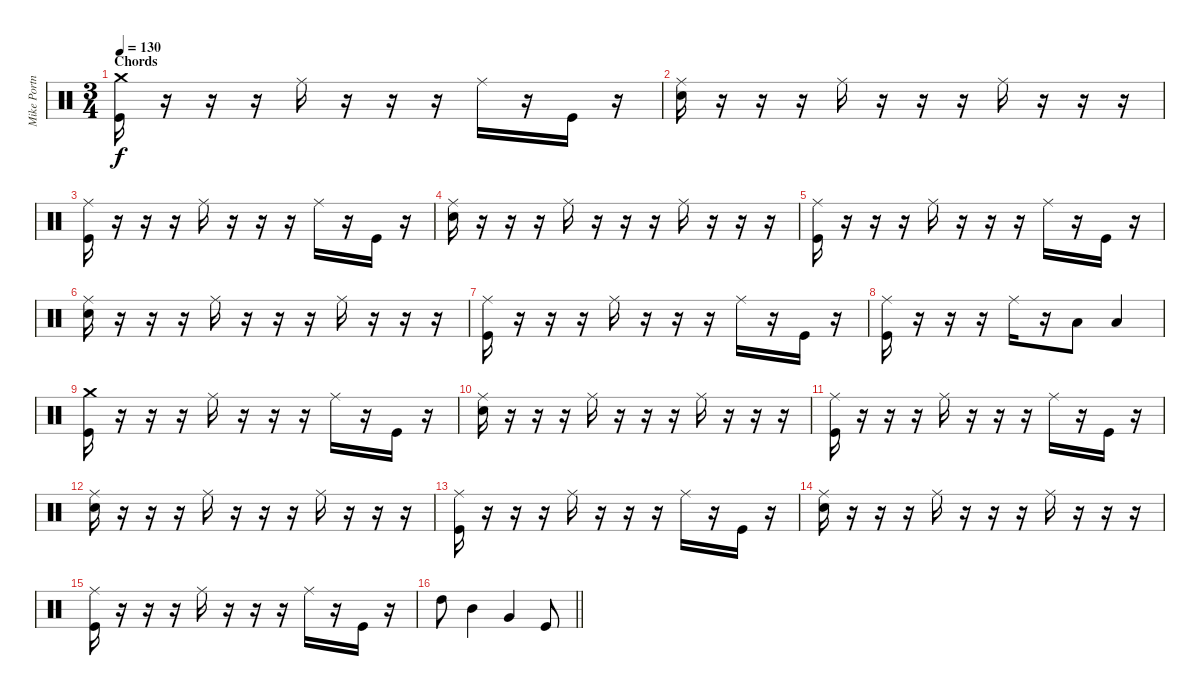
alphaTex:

\track ("Mike Portnoy" "Mike Portn") {instrument percussion}
\staff {score}
\articulation defaults
\ts (3 4)
\section ("" "Chords")
\tempo 130
\clef neutral
\ks c
("Kick (hit)" "Crash medium (hit)").16{dy f} r.16 r.16 r.16 "Ride (middle)".16 r.16 r.16 r.16 "Ride (middle)".16 r.16 "Kick (hit)".16 r.16 |
("Electric Snare (hit)" "Ride (middle)").16 r.16 r.16 r.16 "Ride (middle)".16 r.16 r.16 r.16 "Ride (middle)".16 r.16 r.16 r.16 |
("Kick (hit)" "Ride (middle)").16 r.16 r.16 r.16 "Ride (middle)".16 r.16 r.16 r.16 "Ride (middle)".16 r.16 "Kick (hit)".16 r.16 |
("Electric Snare (hit)" "Ride (middle)").16 r.16 r.16 r.16 "Ride (middle)".16 r.16 r.16 r.16 "Ride (middle)".16 r.16 r.16 r.16 |
("Kick (hit)" "Ride (middle)").16 r.16 r.16 r.16 "Ride (middle)".16 r.16 r.16 r.16 "Ride (middle)".16 r.16 "Kick (hit)".16 r.16 |
("Electric Snare (hit)" "Ride (middle)").16 r.16 r.16 r.16 "Ride (middle)".16 r.16 r.16 r.16 "Ride (middle)".16 r.16 r.16 r.16 |
("Kick (hit)" "Ride (middle)").16 r.16 r.16 r.16 "Ride (middle)".16 r.16 r.16 r.16 "Ride (middle)".16 r.16 "Kick (hit)".16 r.16 |
("Kick (hit)" "Ride (middle)").16 r.16 r.16 r.16 "Ride (middle)".16 r.16 "Low Floor Tom (hit)".8 "Low Floor Tom (hit)".4 |
("Kick (hit)" "Crash medium (hit)").16 r.16 r.16 r.16 "Ride (middle)".16 r.16 r.16 r.16 "Ride (middle)".16 r.16 "Kick (hit)".16 r.16 |
("Electric Snare (hit)" "Ride (middle)").16 r.16 r.16 r.16 "Ride (middle)".16 r.16 r.16 r.16 "Ride (middle)".16 r.16 r.16 r.16 |
("Kick (hit)" "Ride (middle)").16 r.16 r.16 r.16 "Ride (middle)".16 r.16 r.16 r.16 "Ride (middle)".16 r.16 "Kick (hit)".16 r.16 |
("Electric Snare (hit)" "Ride (middle)").16 r.16 r.16 r.16 "Ride (middle)".16 r.16 r.16 r.16 "Ride (middle)".16 r.16 r.16 r.16 |
("Kick (hit)" "Ride (middle)").16 r.16 r.16 r.16 "Ride (middle)".16 r.16 r.16 r.16 "Ride (middle)".16 r.16 "Kick (hit)".16 r.16 |
("Electric Snare (hit)" "Ride (middle)").16 r.16 r.16 r.16 "Ride (middle)".16 r.16 r.16 r.16 "Ride (middle)".16 r.16 r.16 r.16 |
("Kick (hit)" "Ride (middle)").16 r.16 r.16 r.16 "Ride (middle)".16 r.16 r.16 r.16 "Ride (middle)".16 r.16 "Kick (hit)".16 r.16 |
\barLineRight lightlight "High Tom (hit)".8 "Mid Tom (hit)".4 "Very Low Tom (hit)".4 "Kick (hit)".8
